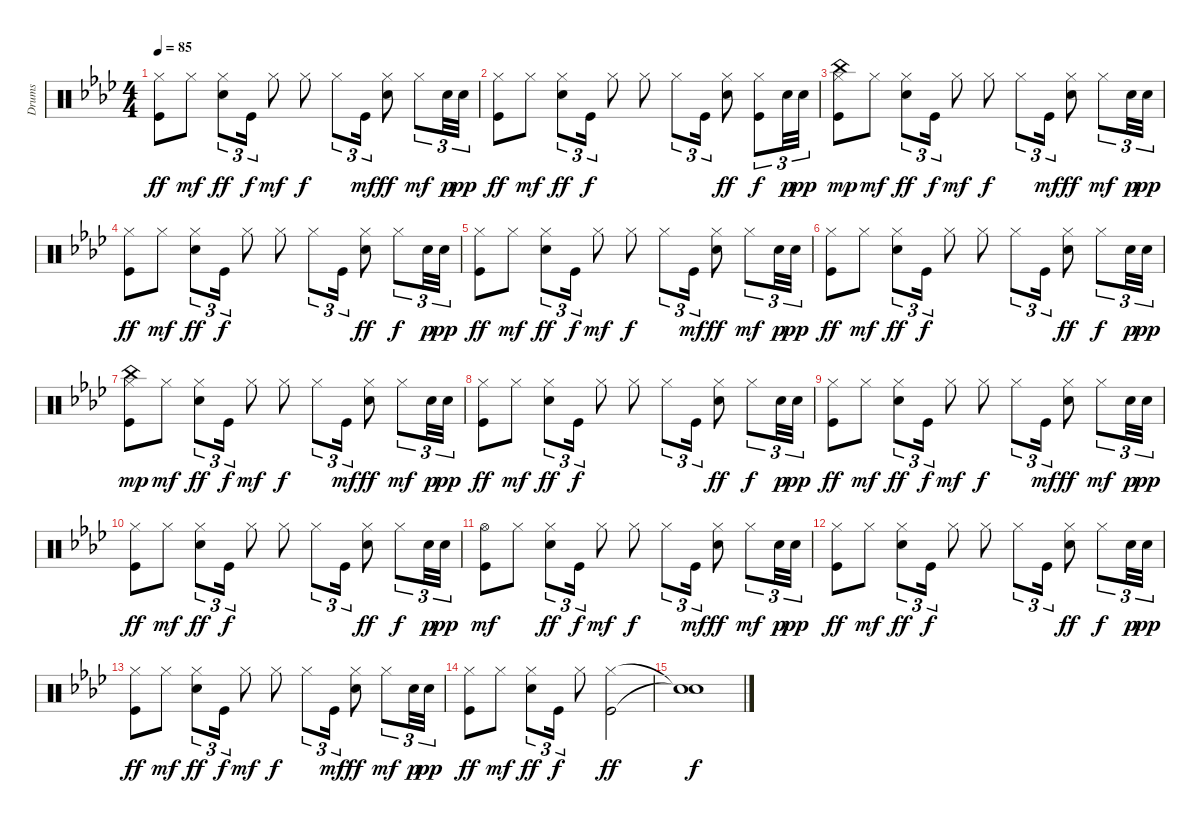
\track ("Drums" "Drums") {instrument percussion}
\staff {score}
\articulation defaults
\ts (4 4)
\tempo 85
\clef neutral
\ks ab
("Kick (hit)" "Hi-Hat (closed)").8{dy ff} "Hi-Hat (closed)".8{dy mf} ("Electric Snare (hit)" "Hi-Hat (closed)").8{tu (3 2) dy ff} "Kick (hit)".16{tu (3 2) dy f} "Hi-Hat (closed)".8{dy mf} "Hi-Hat (closed)".8{dy f} "Hi-Hat (closed)".8{tu (3 2)} "Kick (hit)".16{tu (3 2) dy mf} ("Electric Snare (hit)" "Hi-Hat (closed)").8{dy ff} "Hi-Hat (closed)".8{tu (3 2) dy mf} "Snare (hit) 2".32{tu (3 2) dy p} "Snare (hit) 2".32{tu (3 2) dy pp} |
("Kick (hit)" "Hi-Hat (closed)").8{dy ff} "Hi-Hat (closed)".8{dy mf} ("Electric Snare (hit)" "Hi-Hat (closed)").8{tu (3 2) dy ff} "Kick (hit)".16{tu (3 2) dy f} "Hi-Hat (closed)".8 "Hi-Hat (closed)".8 "Hi-Hat (closed)".8{tu (3 2)} "Kick (hit)".16{tu (3 2)} ("Electric Snare (hit)" "Hi-Hat (closed)").8{dy ff} ("Kick (hit)" "Hi-Hat (closed)").8{tu (3 2) dy f} "Snare (hit) 2".32{tu (3 2) dy p} "Snare (hit) 2".32{tu (3 2) dy pp} |
("Kick (hit)" "Hi-Hat (closed)" "China (hit)").8{dy mp} "Hi-Hat (closed)".8{dy mf} ("Electric Snare (hit)" "Hi-Hat (closed)").8{tu (3 2) dy ff} "Kick (hit)".16{tu (3 2) dy f} "Hi-Hat (closed)".8{dy mf} "Hi-Hat (closed)".8{dy f} "Hi-Hat (closed)".8{tu (3 2)} "Kick (hit)".16{tu (3 2) dy mf} ("Electric Snare (hit)" "Hi-Hat (closed)").8{dy ff} "Hi-Hat (closed)".8{tu (3 2) dy mf} "Snare (hit) 2".32{tu (3 2) dy p} "Snare (hit) 2".32{tu (3 2) dy pp} |
("Kick (hit)" "Hi-Hat (closed)").8{dy ff} "Hi-Hat (closed)".8{dy mf} ("Electric Snare (hit)" "Hi-Hat (closed)").8{tu (3 2) dy ff} "Kick (hit)".16{tu (3 2) dy f} "Hi-Hat (closed)".8 "Hi-Hat (closed)".8 "Hi-Hat (closed)".8{tu (3 2)} "Kick (hit)".16{tu (3 2)} ("Electric Snare (hit)" "Hi-Hat (closed)").8{dy ff} "Hi-Hat (closed)".8{tu (3 2) dy f} "Snare (hit) 2".32{tu (3 2) dy p} "Snare (hit) 2".32{tu (3 2) dy pp} |
("Kick (hit)" "Hi-Hat (closed)").8{dy ff} "Hi-Hat (closed)".8{dy mf} ("Electric Snare (hit)" "Hi-Hat (closed)").8{tu (3 2) dy ff} "Kick (hit)".16{tu (3 2) dy f} "Hi-Hat (closed)".8{dy mf} "Hi-Hat (closed)".8{dy f} "Hi-Hat (closed)".8{tu (3 2)} "Kick (hit)".16{tu (3 2) dy mf} ("Electric Snare (hit)" "Hi-Hat (closed)").8{dy ff} "Hi-Hat (closed)".8{tu (3 2) dy mf} "Snare (hit) 2".32{tu (3 2) dy p} "Snare (hit) 2".32{tu (3 2) dy pp} |
("Kick (hit)" "Hi-Hat (closed)").8{dy ff} "Hi-Hat (closed)".8{dy mf} ("Electric Snare (hit)" "Hi-Hat (closed)").8{tu (3 2) dy ff} "Kick (hit)".16{tu (3 2) dy f} "Hi-Hat (closed)".8 "Hi-Hat (closed)".8 "Hi-Hat (closed)".8{tu (3 2)} "Kick (hit)".16{tu (3 2)} ("Electric Snare (hit)" "Hi-Hat (closed)").8{dy ff} "Hi-Hat (closed)".8{tu (3 2) dy f} "Snare (hit) 2".32{tu (3 2) dy p} "Snare (hit) 2".32{tu (3 2) dy pp} |
("Kick (hit)" "Hi-Hat (closed)" "China (hit)").8{dy mp} "Hi-Hat (closed)".8{dy mf} ("Electric Snare (hit)" "Hi-Hat (closed)").8{tu (3 2) dy ff} "Kick (hit)".16{tu (3 2) dy f} "Hi-Hat (closed)".8{dy mf} "Hi-Hat (closed)".8{dy f} "Hi-Hat (closed)".8{tu (3 2)} "Kick (hit)".16{tu (3 2) dy mf} ("Electric Snare (hit)" "Hi-Hat (closed)").8{dy ff} "Hi-Hat (closed)".8{tu (3 2) dy mf} "Snare (hit) 2".32{tu (3 2) dy p} "Snare (hit) 2".32{tu (3 2) dy pp} |
("Kick (hit)" "Hi-Hat (closed)").8{dy ff} "Hi-Hat (closed)".8{dy mf} ("Electric Snare (hit)" "Hi-Hat (closed)").8{tu (3 2) dy ff} "Kick (hit)".16{tu (3 2) dy f} "Hi-Hat (closed)".8 "Hi-Hat (closed)".8 "Hi-Hat (closed)".8{tu (3 2)} "Kick (hit)".16{tu (3 2)} ("Electric Snare (hit)" "Hi-Hat (closed)").8{dy ff} "Hi-Hat (closed)".8{tu (3 2) dy f} "Snare (hit) 2".32{tu (3 2) dy p} "Snare (hit) 2".32{tu (3 2) dy pp} |
("Kick (hit)" "Hi-Hat (closed)").8{dy ff} "Hi-Hat (closed)".8{dy mf} ("Electric Snare (hit)" "Hi-Hat (closed)").8{tu (3 2) dy ff} "Kick (hit)".16{tu (3 2) dy f} "Hi-Hat (closed)".8{dy mf} "Hi-Hat (closed)".8{dy f} "Hi-Hat (closed)".8{tu (3 2)} "Kick (hit)".16{tu (3 2) dy mf} ("Electric Snare (hit)" "Hi-Hat (closed)").8{dy ff} "Hi-Hat (closed)".8{tu (3 2) dy mf} "Snare (hit) 2".32{tu (3 2) dy p} "Snare (hit) 2".32{tu (3 2) dy pp} |
("Kick (hit)" "Hi-Hat (closed)").8{dy ff} "Hi-Hat (closed)".8{dy mf} ("Electric Snare (hit)" "Hi-Hat (closed)").8{tu (3 2) dy ff} "Kick (hit)".16{tu (3 2) dy f} "Hi-Hat (closed)".8 "Hi-Hat (closed)".8 "Hi-Hat (closed)".8{tu (3 2)} "Kick (hit)".16{tu (3 2)} ("Electric Snare (hit)" "Hi-Hat (closed)").8{dy ff} "Hi-Hat (closed)".8{tu (3 2) dy f} "Snare (hit) 2".32{tu (3 2) dy p} "Snare (hit) 2".32{tu (3 2) dy pp} |
("Kick (hit)" "Hi-Hat (open)").8{dy mf} "Hi-Hat (closed)".8 ("Electric Snare (hit)" "Hi-Hat (closed)").8{tu (3 2) dy ff} "Kick (hit)".16{tu (3 2) dy f} "Hi-Hat (closed)".8{dy mf} "Hi-Hat (closed)".8{dy f} "Hi-Hat (closed)".8{tu (3 2)} "Kick (hit)".16{tu (3 2) dy mf} ("Electric Snare (hit)" "Hi-Hat (closed)").8{dy ff} "Hi-Hat (closed)".8{tu (3 2) dy mf} "Snare (hit) 2".32{tu (3 2) dy p} "Snare (hit) 2".32{tu (3 2) dy pp} |
("Kick (hit)" "Hi-Hat (closed)").8{dy ff} "Hi-Hat (closed)".8{dy mf} ("Electric Snare (hit)" "Hi-Hat (closed)").8{tu (3 2) dy ff} "Kick (hit)".16{tu (3 2) dy f} "Hi-Hat (closed)".8 "Hi-Hat (closed)".8 "Hi-Hat (closed)".8{tu (3 2)} "Kick (hit)".16{tu (3 2)} ("Electric Snare (hit)" "Hi-Hat (closed)").8{dy ff} "Hi-Hat (closed)".8{tu (3 2) dy f} "Snare (hit) 2".32{tu (3 2) dy p} "Snare (hit) 2".32{tu (3 2) dy pp} |
("Kick (hit)" "Hi-Hat (closed)").8{dy ff} "Hi-Hat (closed)".8{dy mf} ("Electric Snare (hit)" "Hi-Hat (closed)").8{tu (3 2) dy ff} "Kick (hit)".16{tu (3 2) dy f} "Hi-Hat (closed)".8{dy mf} "Hi-Hat (closed)".8{dy f} "Hi-Hat (closed)".8{tu (3 2)} "Kick (hit)".16{tu (3 2) dy mf} ("Electric Snare (hit)" "Hi-Hat (closed)").8{dy ff} "Hi-Hat (closed)".8{tu (3 2) dy mf} "Snare (hit) 2".32{tu (3 2) dy p} "Snare (hit) 2".32{tu (3 2) dy pp} |
("Kick (hit)" "Hi-Hat (closed)").8{dy ff} "Hi-Hat (closed)".8{dy mf} ("Electric Snare (hit)" "Hi-Hat (closed)").8{tu (3 2) dy ff} "Kick (hit)".16{tu (3 2) dy f} "Hi-Hat (closed)".8 ("Kick (hit)" "Hi-Hat (closed)").2{dy ff} |
("Snare (hit)"{t} "Snare (hit)"{t}).1{dy f}
